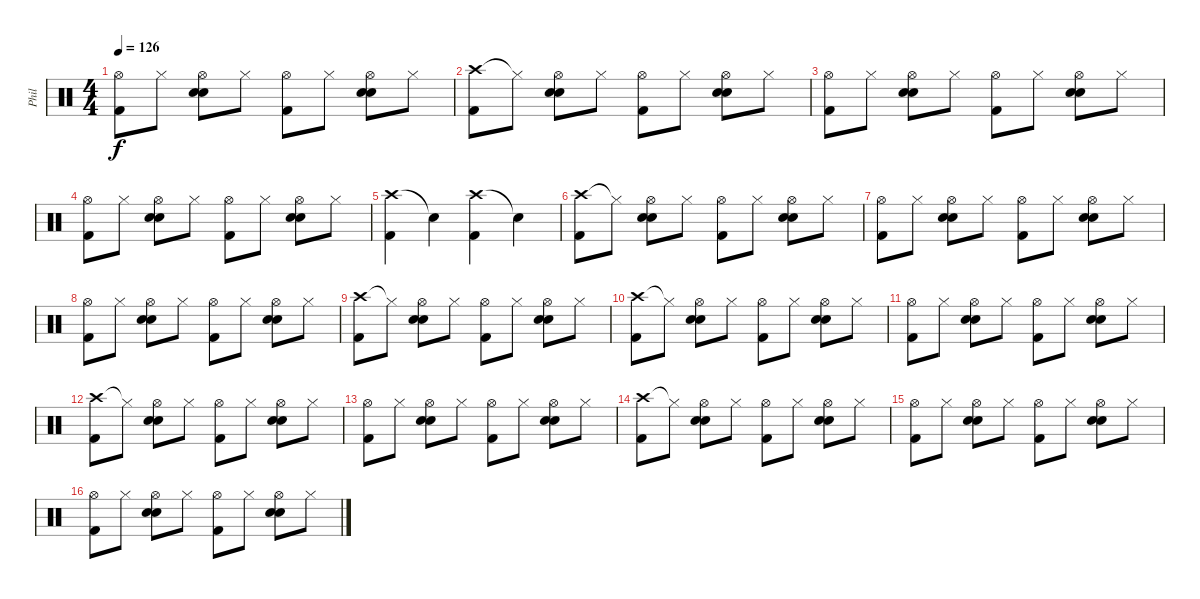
\track ("Phil" "Phil") {instrument percussion}
\staff {score}
\articulation defaults
\ts (4 4)
\tempo 126
\clef neutral
\ks c
("Hi-Hat (open)" "Kick (hit) 2").8{dy f} "Hi-Hat (closed)".8 ("Hi-Hat (open)" "Snare (hit) 2" "Electric Snare (hit)").8 "Hi-Hat (closed)".8 ("Hi-Hat (open)" "Kick (hit) 2").8 "Hi-Hat (closed)".8 ("Hi-Hat (open)" "Snare (hit) 2" "Electric Snare (hit)").8 "Hi-Hat (closed)".8 |
("Crash high (hit)" "Kick (hit) 2").8 "Hi-Hat (closed)"{t}.8 ("Hi-Hat (open)" "Snare (hit) 2" "Electric Snare (hit)").8 "Hi-Hat (closed)".8 ("Hi-Hat (open)" "Kick (hit) 2").8 "Hi-Hat (closed)".8 ("Hi-Hat (open)" "Snare (hit) 2" "Electric Snare (hit)").8 "Hi-Hat (closed)".8 |
("Hi-Hat (open)" "Kick (hit) 2").8 "Hi-Hat (closed)".8 ("Hi-Hat (open)" "Snare (hit) 2" "Electric Snare (hit)").8 "Hi-Hat (closed)".8 ("Hi-Hat (open)" "Kick (hit) 2").8 "Hi-Hat (closed)".8 ("Hi-Hat (open)" "Snare (hit) 2" "Electric Snare (hit)").8 "Hi-Hat (closed)".8 |
("Hi-Hat (open)" "Kick (hit) 2").8 "Hi-Hat (closed)".8 ("Hi-Hat (open)" "Snare (hit) 2" "Electric Snare (hit)").8 "Hi-Hat (closed)".8 ("Hi-Hat (open)" "Kick (hit) 2").8 "Hi-Hat (closed)".8 ("Hi-Hat (open)" "Snare (hit) 2" "Electric Snare (hit)").8 "Hi-Hat (closed)".8 |
("Crash high (hit)" "Kick (hit) 2").4 "Snare (hit)"{t}.4 ("Crash high (hit)" "Kick (hit) 2").4 "Snare (hit)"{t}.4 |
("Crash high (hit)" "Kick (hit) 2").8 "Hi-Hat (closed)"{t}.8 ("Hi-Hat (open)" "Snare (hit) 2" "Electric Snare (hit)").8 "Hi-Hat (closed)".8 ("Hi-Hat (open)" "Kick (hit) 2").8 "Hi-Hat (closed)".8 ("Hi-Hat (open)" "Snare (hit) 2" "Electric Snare (hit)").8 "Hi-Hat (closed)".8 |
("Hi-Hat (open)" "Kick (hit) 2").8 "Hi-Hat (closed)".8 ("Hi-Hat (open)" "Snare (hit) 2" "Electric Snare (hit)").8 "Hi-Hat (closed)".8 ("Hi-Hat (open)" "Kick (hit) 2").8 "Hi-Hat (closed)".8 ("Hi-Hat (open)" "Snare (hit) 2" "Electric Snare (hit)").8 "Hi-Hat (closed)".8 |
("Hi-Hat (open)" "Kick (hit) 2").8 "Hi-Hat (closed)".8 ("Hi-Hat (open)" "Snare (hit) 2" "Electric Snare (hit)").8 "Hi-Hat (closed)".8 ("Hi-Hat (open)" "Kick (hit) 2").8 "Hi-Hat (closed)".8 ("Hi-Hat (open)" "Snare (hit) 2" "Electric Snare (hit)").8 "Hi-Hat (closed)".8 |
("Crash high (hit)" "Kick (hit) 2").8 "Hi-Hat (closed)"{t}.8 ("Hi-Hat (open)" "Snare (hit) 2" "Electric Snare (hit)").8 "Hi-Hat (closed)".8 ("Hi-Hat (open)" "Kick (hit) 2").8 "Hi-Hat (closed)".8 ("Hi-Hat (open)" "Snare (hit) 2" "Electric Snare (hit)").8 "Hi-Hat (closed)".8 |
("Crash high (hit)" "Kick (hit) 2").8 "Hi-Hat (closed)"{t}.8 ("Hi-Hat (open)" "Snare (hit) 2" "Electric Snare (hit)").8 "Hi-Hat (closed)".8 ("Hi-Hat (open)" "Kick (hit) 2").8 "Hi-Hat (closed)".8 ("Hi-Hat (open)" "Snare (hit) 2" "Electric Snare (hit)").8 "Hi-Hat (closed)".8 |
("Hi-Hat (open)" "Kick (hit) 2").8 "Hi-Hat (closed)".8 ("Hi-Hat (open)" "Snare (hit) 2" "Electric Snare (hit)").8 "Hi-Hat (closed)".8 ("Hi-Hat (open)" "Kick (hit) 2").8 "Hi-Hat (closed)".8 ("Hi-Hat (open)" "Snare (hit) 2" "Electric Snare (hit)").8 "Hi-Hat (closed)".8 |
("Crash high (hit)" "Kick (hit) 2").8 "Hi-Hat (closed)"{t}.8 ("Hi-Hat (open)" "Snare (hit) 2" "Electric Snare (hit)").8 "Hi-Hat (closed)".8 ("Hi-Hat (open)" "Kick (hit) 2").8 "Hi-Hat (closed)".8 ("Hi-Hat (open)" "Snare (hit) 2" "Electric Snare (hit)").8 "Hi-Hat (closed)".8 |
("Hi-Hat (open)" "Kick (hit) 2").8 "Hi-Hat (closed)".8 ("Hi-Hat (open)" "Snare (hit) 2" "Electric Snare (hit)").8 "Hi-Hat (closed)".8 ("Hi-Hat (open)" "Kick (hit) 2").8 "Hi-Hat (closed)".8 ("Hi-Hat (open)" "Snare (hit) 2" "Electric Snare (hit)").8 "Hi-Hat (closed)".8 |
("Crash high (hit)" "Kick (hit) 2").8 "Hi-Hat (closed)"{t}.8 ("Hi-Hat (open)" "Snare (hit) 2" "Electric Snare (hit)").8 "Hi-Hat (closed)".8 ("Hi-Hat (open)" "Kick (hit) 2").8 "Hi-Hat (closed)".8 ("Hi-Hat (open)" "Snare (hit) 2" "Electric Snare (hit)").8 "Hi-Hat (closed)".8 |
("Hi-Hat (open)" "Kick (hit) 2").8 "Hi-Hat (closed)".8 ("Hi-Hat (open)" "Snare (hit) 2" "Electric Snare (hit)").8 "Hi-Hat (closed)".8 ("Hi-Hat (open)" "Kick (hit) 2").8 "Hi-Hat (closed)".8 ("Hi-Hat (open)" "Snare (hit) 2" "Electric Snare (hit)").8 "Hi-Hat (closed)".8 |
("Hi-Hat (open)" "Kick (hit) 2").8 "Hi-Hat (closed)".8 ("Hi-Hat (open)" "Snare (hit) 2" "Electric Snare (hit)").8 "Hi-Hat (closed)".8 ("Hi-Hat (open)" "Kick (hit) 2").8 "Hi-Hat (closed)".8 ("Hi-Hat (open)" "Snare (hit) 2" "Electric Snare (hit)").8 "Hi-Hat (closed)".8
